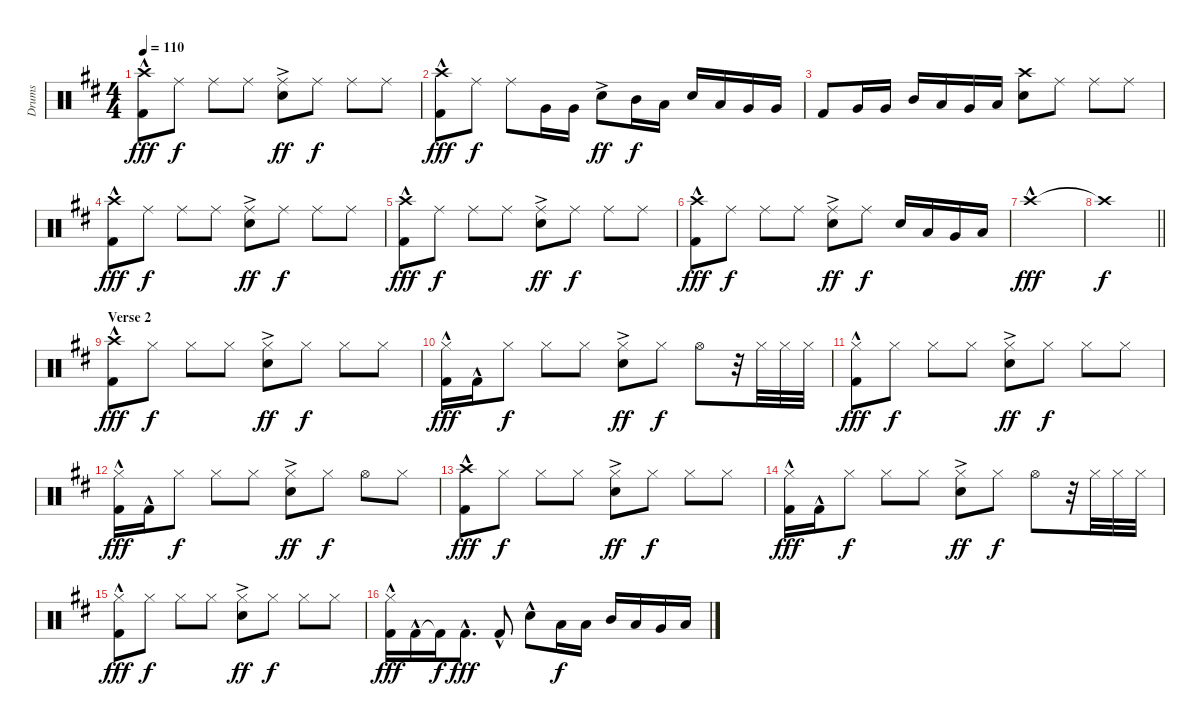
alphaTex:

\track ("Drums" "Drums") {instrument percussion}
\staff {score}
\articulation defaults
\ts (4 4)
\tempo 110
\clef neutral
\ks d
("Crash high (hit)" "Kick (hit) 2"{hac}).8{dy fff} "Ride (middle)".8{dy f} "Ride (middle)".8 "Ride (middle)".8 ("Snare (hit) 2"{ac} "Ride (middle)").8{dy ff} "Ride (middle)".8{dy f} "Ride (middle)".8 "Ride (middle)".8 |
("Crash high (hit)" "Kick (hit) 2"{hac}).8{dy fff} "Ride (middle)".8{dy f} "Ride (middle)".8 "Very Low Tom (hit)".16 "Very Low Tom (hit)".16 "Snare (hit) 2"{ac}.8{dy ff} "Mid Tom (hit)".16{dy f} "Low Tom (hit)".16 "Snare (hit) 2".16 "Low Tom (hit)".16 "Very Low Tom (hit)".16 "Very Low Tom (hit)".16 |
"Kick (hit) 2".8 "Very Low Tom (hit)".16 "Very Low Tom (hit)".16 "Mid Tom (hit)".16 "Low Tom (hit)".16 "Very Low Tom (hit)".16 "Low Floor Tom (hit)".16 ("Snare (hit) 2" "Crash high (hit)").8 "Ride (middle)".8 "Ride (middle)".8 "Ride (middle)".8 |
("Crash high (hit)" "Kick (hit) 2"{hac}).8{dy fff} "Ride (middle)".8{dy f} "Ride (middle)".8 "Ride (middle)".8 ("Snare (hit) 2"{ac} "Ride (middle)").8{dy ff} "Ride (middle)".8{dy f} "Ride (middle)".8 "Ride (middle)".8 |
("Crash high (hit)" "Kick (hit) 2"{hac}).8{dy fff} "Ride (middle)".8{dy f} "Ride (middle)".8 "Ride (middle)".8 ("Snare (hit) 2"{ac} "Ride (middle)").8{dy ff} "Ride (middle)".8{dy f} "Ride (middle)".8 "Ride (middle)".8 |
("Crash high (hit)" "Kick (hit) 2"{hac}).8{dy fff} "Ride (middle)".8{dy f} "Ride (middle)".8 "Ride (middle)".8 ("Snare (hit) 2"{ac} "Ride (middle)").8{dy ff} "Ride (middle)".8{dy f} "Snare (hit) 2".16 "Low Tom (hit)".16 "Very Low Tom (hit)".16 "Low Floor Tom (hit)".16 |
"Crash high (hit)"{hac}.1{dy fff} |
\barLineRight lightlight "Crash high (hit)"{t}.1{dy f}
|
\section ("" "Verse 2")
("Crash high (hit)" "Kick (hit) 2"{hac}).8{dy fff} "Hi-Hat (closed)".8{dy f} "Hi-Hat (closed)".8 "Hi-Hat (closed)".8 ("Snare (hit) 2"{ac} "Hi-Hat (closed)").8{dy ff} "Hi-Hat (closed)".8{dy f} "Hi-Hat (closed)".8 "Hi-Hat (closed)".8 |
("Hi-Hat (closed)" "Kick (hit) 2"{hac}).16{dy fff} "Kick (hit) 2"{hac}.16 "Hi-Hat (closed)".8{dy f} "Hi-Hat (closed)".8 "Hi-Hat (closed)".8 ("Snare (hit) 2"{ac} "Hi-Hat (closed)").8{dy ff} "Hi-Hat (closed)".8{dy f} "Hi-Hat (open)".8 r.32 "Hi-Hat (closed)".32 "Hi-Hat (closed)".32 "Hi-Hat (closed)".32 |
("Hi-Hat (closed)" "Kick (hit) 2"{hac}).8{dy fff} "Hi-Hat (closed)".8{dy f} "Hi-Hat (closed)".8 "Hi-Hat (closed)".8 ("Snare (hit) 2"{ac} "Hi-Hat (closed)").8{dy ff} "Hi-Hat (closed)".8{dy f} "Hi-Hat (closed)".8 "Hi-Hat (closed)".8 |
("Hi-Hat (closed)" "Kick (hit) 2"{hac}).16{dy fff} "Kick (hit) 2"{hac}.16 "Hi-Hat (closed)".8{dy f} "Hi-Hat (closed)".8 "Hi-Hat (closed)".8 ("Snare (hit) 2"{ac} "Hi-Hat (closed)").8{dy ff} "Hi-Hat (closed)".8{dy f} "Hi-Hat (open)".8 "Hi-Hat (closed)".8 |
("Crash high (hit)" "Kick (hit) 2"{hac}).8{dy fff} "Hi-Hat (closed)".8{dy f} "Hi-Hat (closed)".8 "Hi-Hat (closed)".8 ("Snare (hit) 2"{ac} "Hi-Hat (closed)").8{dy ff} "Hi-Hat (closed)".8{dy f} "Hi-Hat (closed)".8 "Hi-Hat (closed)".8 |
("Hi-Hat (closed)" "Kick (hit) 2"{hac}).16{dy fff} "Kick (hit) 2"{hac}.16 "Hi-Hat (closed)".8{dy f} "Hi-Hat (closed)".8 "Hi-Hat (closed)".8 ("Snare (hit) 2"{ac} "Hi-Hat (closed)").8{dy ff} "Hi-Hat (closed)".8{dy f} "Hi-Hat (open)".8 r.32 "Hi-Hat (closed)".32 "Hi-Hat (closed)".32 "Hi-Hat (closed)".32 |
("Hi-Hat (closed)" "Kick (hit) 2"{hac}).8{dy fff} "Hi-Hat (closed)".8{dy f} "Hi-Hat (closed)".8 "Hi-Hat (closed)".8 ("Snare (hit) 2"{ac} "Hi-Hat (closed)").8{dy ff} "Hi-Hat (closed)".8{dy f} "Hi-Hat (closed)".8 "Hi-Hat (closed)".8 |
("Hi-Hat (closed)" "Kick (hit) 2"{hac}).16{dy fff} "Kick (hit) 2"{hac}.16 "Kick (hit) 2"{t}.16{dy f} "Kick (hit) 2"{hac}.8{d dy fff} "Kick (hit) 2"{hac}.8 "Snare (hit) 2"{hac}.8 "Low Tom (hit)".16{dy f} "Low Tom (hit)".16 "Mid Tom (hit)".16 "Low Tom (hit)".16 "Very Low Tom (hit)".16 "Low Floor Tom (hit)".16
